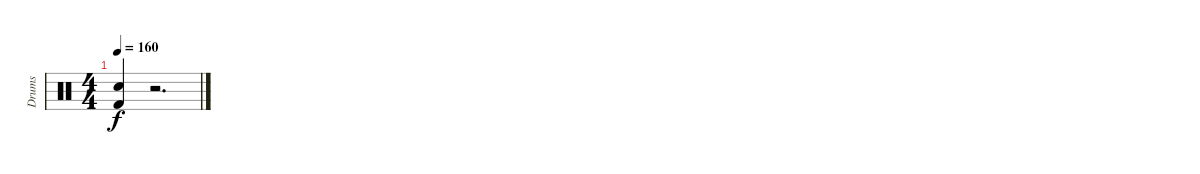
\track ("Drums" "Drums") {instrument percussion}
\staff {score}
\articulation defaults
\ts (4 4)
\tempo 160
\clef neutral
\ks c
("Snare (hit) 2" "Kick (hit) 2").4{dy f} r.2{d}
